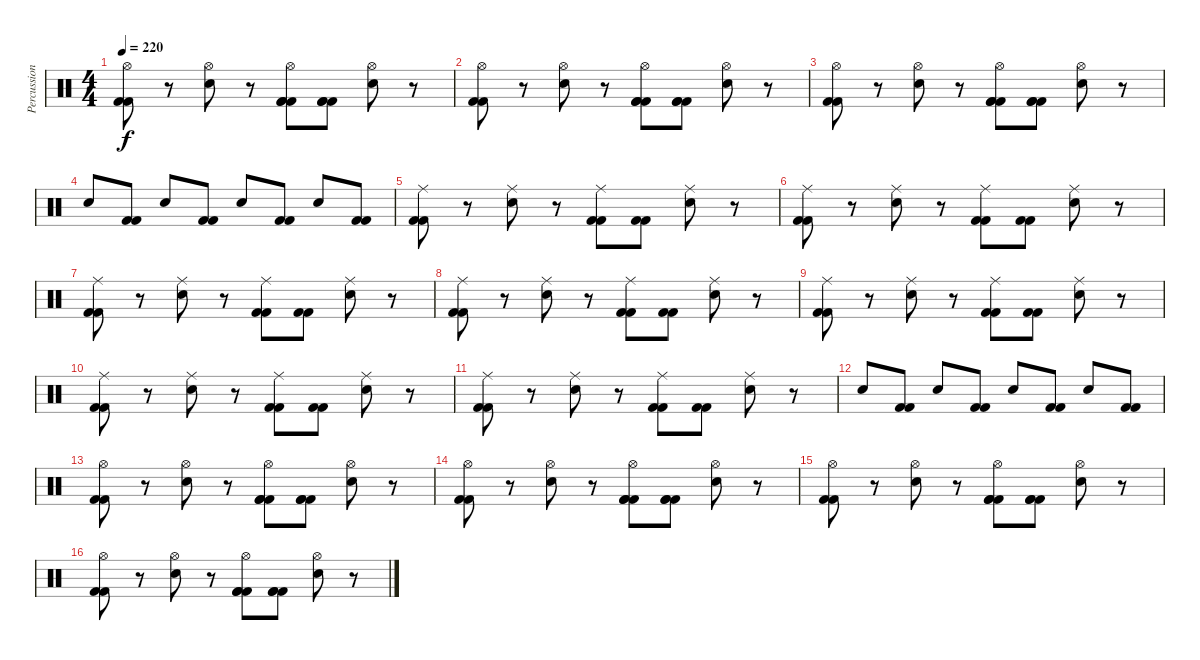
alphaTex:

\track ("Percussion" "Percussion") {instrument percussion}
\staff {score}
\articulation defaults
\ts (4 4)
\tempo 220
\clef neutral
\ks c
("Hi-Hat (open)" "Kick (hit) 2" "Kick (hit) 2").8{dy f} r.8 ("Hi-Hat (open)" "Electric Snare (hit)").8 r.8 ("Hi-Hat (open)" "Kick (hit) 2" "Kick (hit) 2" "Kick (hit) 2").8 ("Kick (hit) 2" "Kick (hit) 2" "Kick (hit) 2").8 ("Hi-Hat (open)" "Electric Snare (hit)").8 r.8 |
("Hi-Hat (open)" "Kick (hit) 2" "Kick (hit) 2").8 r.8 ("Hi-Hat (open)" "Electric Snare (hit)").8 r.8 ("Hi-Hat (open)" "Kick (hit) 2" "Kick (hit) 2" "Kick (hit) 2").8 ("Kick (hit) 2" "Kick (hit) 2" "Kick (hit) 2").8 ("Hi-Hat (open)" "Electric Snare (hit)").8 r.8 |
("Hi-Hat (open)" "Kick (hit) 2" "Kick (hit) 2").8 r.8 ("Hi-Hat (open)" "Electric Snare (hit)").8 r.8 ("Hi-Hat (open)" "Kick (hit) 2" "Kick (hit) 2" "Kick (hit) 2").8 ("Kick (hit) 2" "Kick (hit) 2" "Kick (hit) 2").8 ("Hi-Hat (open)" "Electric Snare (hit)").8 r.8 |
"Electric Snare (hit)".8 ("Kick (hit) 2" "Kick (hit) 2").8 "Electric Snare (hit)".8 ("Kick (hit) 2" "Kick (hit) 2").8 "Electric Snare (hit)".8 ("Kick (hit) 2" "Kick (hit) 2").8 "Electric Snare (hit)".8 ("Kick (hit) 2" "Kick (hit) 2").8 |
("Ride (middle)" "Kick (hit) 2" "Kick (hit) 2").8 r.8 ("Ride (middle)" "Electric Snare (hit)").8 r.8 ("Ride (middle)" "Kick (hit) 2" "Kick (hit) 2").8 ("Kick (hit) 2" "Kick (hit) 2").8 ("Ride (middle)" "Electric Snare (hit)").8 r.8 |
("Ride (middle)" "Kick (hit) 2" "Kick (hit) 2").8 r.8 ("Ride (middle)" "Electric Snare (hit)").8 r.8 ("Ride (middle)" "Kick (hit) 2" "Kick (hit) 2").8 ("Kick (hit) 2" "Kick (hit) 2").8 ("Ride (middle)" "Electric Snare (hit)").8 r.8 |
("Ride (middle)" "Kick (hit) 2" "Kick (hit) 2").8 r.8 ("Ride (middle)" "Electric Snare (hit)").8 r.8 ("Ride (middle)" "Kick (hit) 2" "Kick (hit) 2").8 ("Kick (hit) 2" "Kick (hit) 2").8 ("Ride (middle)" "Electric Snare (hit)").8 r.8 |
("Ride (middle)" "Kick (hit) 2" "Kick (hit) 2").8 r.8 ("Ride (middle)" "Electric Snare (hit)").8 r.8 ("Ride (middle)" "Kick (hit) 2" "Kick (hit) 2").8 ("Kick (hit) 2" "Kick (hit) 2").8 ("Ride (middle)" "Electric Snare (hit)").8 r.8 |
("Ride (middle)" "Kick (hit) 2" "Kick (hit) 2").8 r.8 ("Ride (middle)" "Electric Snare (hit)").8 r.8 ("Ride (middle)" "Kick (hit) 2" "Kick (hit) 2").8 ("Kick (hit) 2" "Kick (hit) 2").8 ("Ride (middle)" "Electric Snare (hit)").8 r.8 |
("Ride (middle)" "Kick (hit) 2" "Kick (hit) 2").8 r.8 ("Ride (middle)" "Electric Snare (hit)").8 r.8 ("Ride (middle)" "Kick (hit) 2" "Kick (hit) 2").8 ("Kick (hit) 2" "Kick (hit) 2").8 ("Ride (middle)" "Electric Snare (hit)").8 r.8 |
("Ride (middle)" "Kick (hit) 2" "Kick (hit) 2").8 r.8 ("Ride (middle)" "Electric Snare (hit)").8 r.8 ("Ride (middle)" "Kick (hit) 2" "Kick (hit) 2").8 ("Kick (hit) 2" "Kick (hit) 2").8 ("Ride (middle)" "Electric Snare (hit)").8 r.8 |
"Electric Snare (hit)".8 ("Kick (hit) 2" "Kick (hit) 2").8 "Electric Snare (hit)".8 ("Kick (hit) 2" "Kick (hit) 2").8 "Electric Snare (hit)".8 ("Kick (hit) 2" "Kick (hit) 2").8 "Electric Snare (hit)".8 ("Kick (hit) 2" "Kick (hit) 2").8 |
("Hi-Hat (open)" "Kick (hit) 2" "Kick (hit) 2").8 r.8 ("Hi-Hat (open)" "Electric Snare (hit)").8 r.8 ("Hi-Hat (open)" "Kick (hit) 2" "Kick (hit) 2" "Kick (hit) 2").8 ("Kick (hit) 2" "Kick (hit) 2" "Kick (hit) 2").8 ("Hi-Hat (open)" "Electric Snare (hit)").8 r.8 |
("Hi-Hat (open)" "Kick (hit) 2" "Kick (hit) 2").8 r.8 ("Hi-Hat (open)" "Electric Snare (hit)").8 r.8 ("Hi-Hat (open)" "Kick (hit) 2" "Kick (hit) 2" "Kick (hit) 2").8 ("Kick (hit) 2" "Kick (hit) 2" "Kick (hit) 2").8 ("Hi-Hat (open)" "Electric Snare (hit)").8 r.8 |
("Hi-Hat (open)" "Kick (hit) 2" "Kick (hit) 2").8 r.8 ("Hi-Hat (open)" "Electric Snare (hit)").8 r.8 ("Hi-Hat (open)" "Kick (hit) 2" "Kick (hit) 2" "Kick (hit) 2").8 ("Kick (hit) 2" "Kick (hit) 2" "Kick (hit) 2").8 ("Hi-Hat (open)" "Electric Snare (hit)").8 r.8 |
("Hi-Hat (open)" "Kick (hit) 2" "Kick (hit) 2").8 r.8 ("Hi-Hat (open)" "Electric Snare (hit)").8 r.8 ("Hi-Hat (open)" "Kick (hit) 2" "Kick (hit) 2" "Kick (hit) 2").8 ("Kick (hit) 2" "Kick (hit) 2" "Kick (hit) 2").8 ("Hi-Hat (open)" "Electric Snare (hit)").8 r.8
